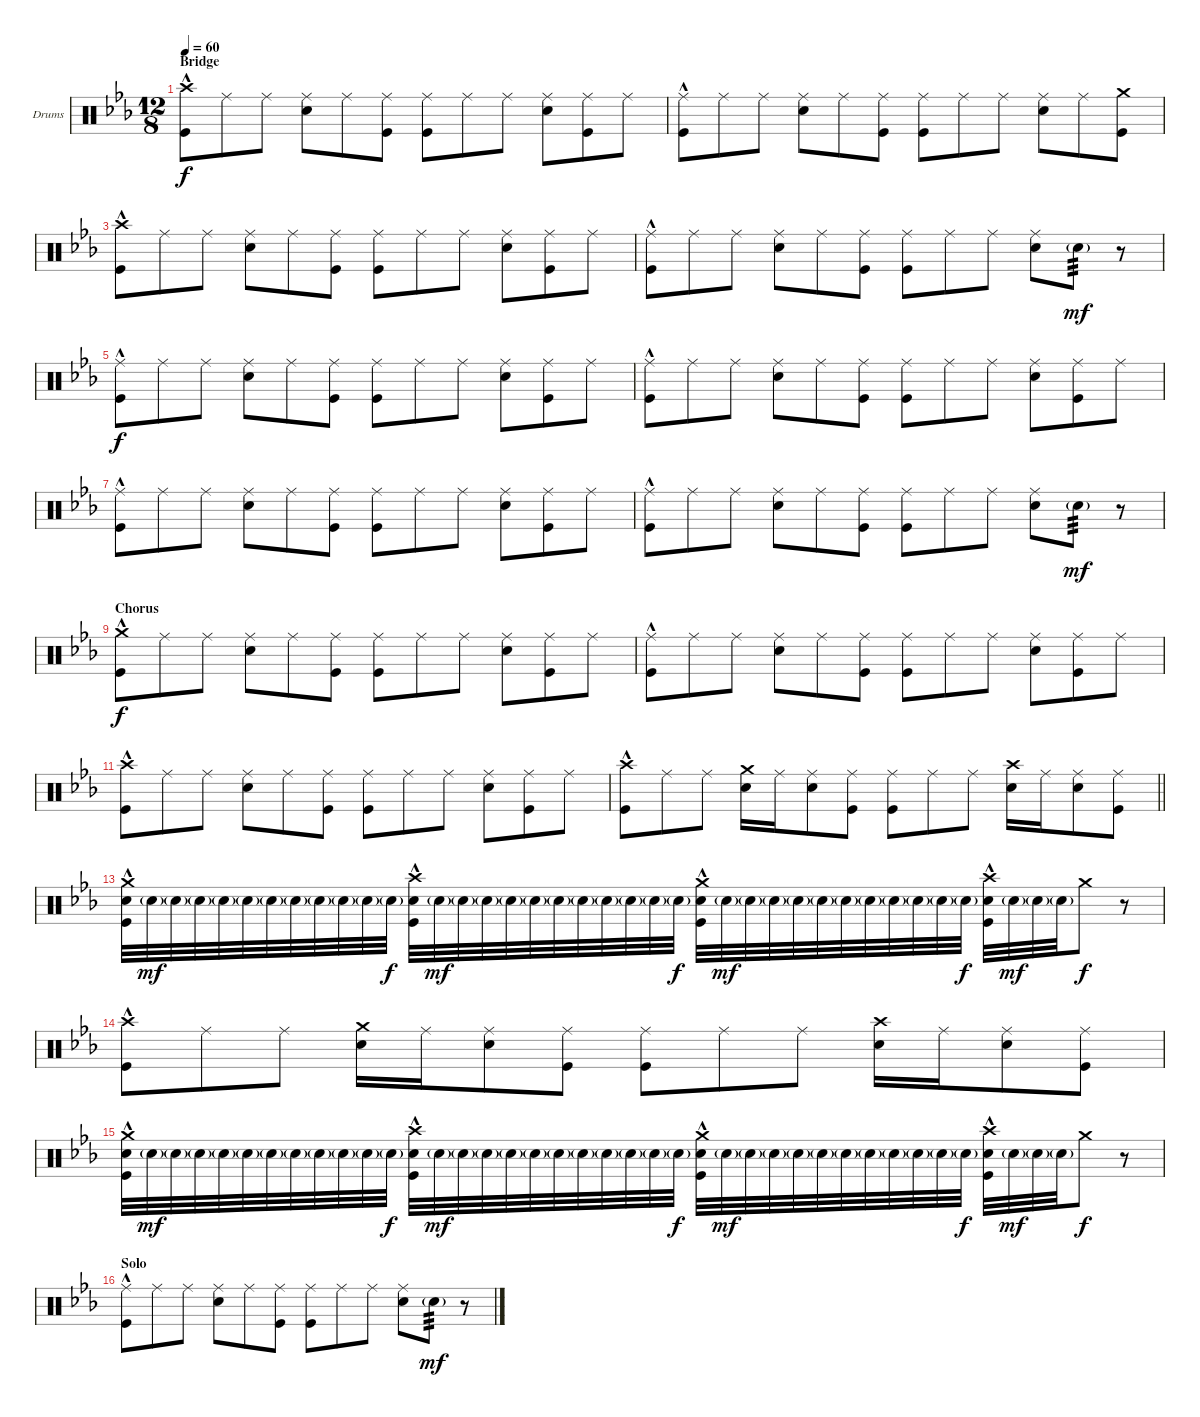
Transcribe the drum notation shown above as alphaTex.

\bracketExtendMode nobrackets
\firstSystemTrackNameOrientation horizontal
\otherSystemsTrackNameOrientation horizontal
\defaultBarNumberDisplay FirstOfSystem
\track ("Drumkit" "Drums") {instrument percussion}
\staff {score}
\articulation defaults
\ts (12 8)
\section ("" "Bridge")
\tempo 60
\clef neutral
\scale
0.333333
\ks cminor
("Crash high (hit)" "Kick (hit)"{hac}).8{dy f} "Ride (middle)".8 "Ride (middle)".8 ("Ride (middle)" "Snare (hit) 2").8 "Ride (middle)".8 ("Ride (middle)" "Kick (hit)").8 ("Ride (middle)" "Kick (hit)").8 "Ride (middle)".8 "Ride (middle)".8 ("Ride (middle)" "Snare (hit) 2").8 ("Ride (middle)" "Kick (hit)").8 "Ride (middle)".8 |
\scale
0.333333 ("Ride (middle)" "Kick (hit)"{hac}).8 "Ride (middle)".8 "Ride (middle)".8 ("Ride (middle)" "Snare (hit) 2").8 "Ride (middle)".8 ("Ride (middle)" "Kick (hit)").8 ("Ride (middle)" "Kick (hit)").8 "Ride (middle)".8 "Ride (middle)".8 ("Ride (middle)" "Snare (hit) 2").8 "Ride (middle)".8 ("Crash medium (hit)" "Kick (hit)").8 |
\scale
0.333333 ("Crash high (hit)" "Kick (hit)"{hac}).8 "Ride (middle)".8 "Ride (middle)".8 ("Ride (middle)" "Snare (hit) 2").8 "Ride (middle)".8 ("Ride (middle)" "Kick (hit)").8 ("Ride (middle)" "Kick (hit)").8 "Ride (middle)".8 "Ride (middle)".8 ("Ride (middle)" "Snare (hit) 2").8 ("Ride (middle)" "Kick (hit)").8 "Ride (middle)".8 |
\scale
0.333333 ("Ride (middle)" "Kick (hit)"{hac}).8 "Ride (middle)".8 "Ride (middle)".8 ("Ride (middle)" "Snare (hit) 2").8 "Ride (middle)".8 ("Ride (middle)" "Kick (hit)").8 ("Ride (middle)" "Kick (hit)").8 "Ride (middle)".8 "Ride (middle)".8 ("Ride (middle)" "Snare (hit) 2").8 "Snare (hit) 2"{g}.8{tp 3 dy mf} r.8 |
\scale
0.333333 ("Ride (middle)" "Kick (hit)"{hac}).8{dy f} "Ride (middle)".8 "Ride (middle)".8 ("Ride (middle)" "Snare (hit) 2").8 "Ride (middle)".8 ("Ride (middle)" "Kick (hit)").8 ("Ride (middle)" "Kick (hit)").8 "Ride (middle)".8 "Ride (middle)".8 ("Ride (middle)" "Snare (hit) 2").8 ("Ride (middle)" "Kick (hit)").8 "Ride (middle)".8 |
\scale
0.333333 ("Ride (middle)" "Kick (hit)"{hac}).8 "Ride (middle)".8 "Ride (middle)".8 ("Ride (middle)" "Snare (hit) 2").8 "Ride (middle)".8 ("Ride (middle)" "Kick (hit)").8 ("Ride (middle)" "Kick (hit)").8 "Ride (middle)".8 "Ride (middle)".8 ("Ride (middle)" "Snare (hit) 2").8 ("Ride (middle)" "Kick (hit)").8 "Ride (middle)".8 |
\scale
0.333333 ("Ride (middle)" "Kick (hit)"{hac}).8 "Ride (middle)".8 "Ride (middle)".8 ("Ride (middle)" "Snare (hit) 2").8 "Ride (middle)".8 ("Ride (middle)" "Kick (hit)").8 ("Ride (middle)" "Kick (hit)").8 "Ride (middle)".8 "Ride (middle)".8 ("Ride (middle)" "Snare (hit) 2").8 ("Ride (middle)" "Kick (hit)").8 "Ride (middle)".8 |
\scale
0.333333 ("Ride (middle)" "Kick (hit)"{hac}).8 "Ride (middle)".8 "Ride (middle)".8 ("Ride (middle)" "Snare (hit) 2").8 "Ride (middle)".8 ("Ride (middle)" "Kick (hit)").8 ("Ride (middle)" "Kick (hit)").8 "Ride (middle)".8 "Ride (middle)".8 ("Ride (middle)" "Snare (hit) 2").8 "Snare (hit) 2"{g}.8{tp 3 dy mf} r.8 |
\section ("" "Chorus")
\scale
0.333333 ("Crash medium (hit)" "Kick (hit)"{hac}).8{dy f} "Ride (middle)".8 "Ride (middle)".8 ("Ride (middle)" "Snare (hit) 2").8 "Ride (middle)".8 ("Ride (middle)" "Kick (hit)").8 ("Ride (middle)" "Kick (hit)").8 "Ride (middle)".8 "Ride (middle)".8 ("Ride (middle)" "Snare (hit) 2").8 ("Ride (middle)" "Kick (hit)").8 "Ride (middle)".8 |
\scale
0.333333 ("Ride (middle)" "Kick (hit)"{hac}).8 "Ride (middle)".8 "Ride (middle)".8 ("Ride (middle)" "Snare (hit) 2").8 "Ride (middle)".8 ("Ride (middle)" "Kick (hit)").8 ("Ride (middle)" "Kick (hit)").8 "Ride (middle)".8 "Ride (middle)".8 ("Ride (middle)" "Snare (hit) 2").8 ("Ride (middle)" "Kick (hit)").8 "Ride (middle)".8 |
\scale
0.333333 ("Crash high (hit)" "Kick (hit)"{hac}).8 "Ride (middle)".8 "Ride (middle)".8 ("Ride (middle)" "Snare (hit) 2").8 "Ride (middle)".8 ("Ride (middle)" "Kick (hit)").8 ("Ride (middle)" "Kick (hit)").8 "Ride (middle)".8 "Ride (middle)".8 ("Ride (middle)" "Snare (hit) 2").8 ("Ride (middle)" "Kick (hit)").8 "Ride (middle)".8 |
\scale
0.333333
\barLineRight lightlight
("Crash high (hit)" "Kick (hit)"{hac}).8 "Ride (middle)".8 "Ride (middle)".8 ("Crash medium (hit)" "Snare (hit) 2").16 "Ride (middle)".16 ("Ride (middle)" "Snare (hit) 2").8 ("Ride (middle)" "Kick (hit)").8 ("Ride (middle)" "Kick (hit)").8 "Ride (middle)".8 "Ride (middle)".8 ("Crash high (hit)" "Snare (hit) 2").16 "Ride (middle)".16 ("Ride (middle)" "Snare (hit) 2").8 ("Ride (middle)" "Kick (hit)").8 |
\scale
0.333333 ("Snare (hit) 2" "Kick (hit)"{hac} "Crash medium (hit)").32 "Snare (hit) 2"{g}.32{dy mf} "Snare (hit) 2"{g}.32 "Snare (hit) 2"{g}.32 "Snare (hit) 2"{g}.32 "Snare (hit) 2"{g}.32 "Snare (hit) 2"{g}.32 "Snare (hit) 2"{g}.32 "Snare (hit) 2"{g}.32 "Snare (hit) 2"{g}.32 "Snare (hit) 2"{g}.32 "Snare (hit) 2"{g}.32{dy f} ("Snare (hit) 2" "Kick (hit)"{hac} "Crash high (hit)").32 "Snare (hit) 2"{g}.32{dy mf} "Snare (hit) 2"{g}.32 "Snare (hit) 2"{g}.32 "Snare (hit) 2"{g}.32 "Snare (hit) 2"{g}.32 "Snare (hit) 2"{g}.32 "Snare (hit) 2"{g}.32 "Snare (hit) 2"{g}.32 "Snare (hit) 2"{g}.32 "Snare (hit) 2"{g}.32 "Snare (hit) 2"{g}.32{dy f} ("Snare (hit) 2" "Kick (hit)"{hac} "Crash medium (hit)").32 "Snare (hit) 2"{g}.32{dy mf} "Snare (hit) 2"{g}.32 "Snare (hit) 2"{g}.32 "Snare (hit) 2"{g}.32 "Snare (hit) 2"{g}.32 "Snare (hit) 2"{g}.32 "Snare (hit) 2"{g}.32 "Snare (hit) 2"{g}.32 "Snare (hit) 2"{g}.32 "Snare (hit) 2"{g}.32 "Snare (hit) 2"{g}.32{dy f} ("Snare (hit) 2" "Kick (hit)"{hac} "Crash high (hit)").32 "Snare (hit) 2"{g}.32{dy mf} "Snare (hit) 2"{g}.32 "Snare (hit) 2"{g}.32 "Crash medium (hit)".8{dy f} r.8 |
\scale
0.333333 ("Crash high (hit)" "Kick (hit)"{hac}).8 "Ride (middle)".8 "Ride (middle)".8 ("Crash medium (hit)" "Snare (hit) 2").16 "Ride (middle)".16 ("Ride (middle)" "Snare (hit) 2").8 ("Ride (middle)" "Kick (hit)").8 ("Ride (middle)" "Kick (hit)").8 "Ride (middle)".8 "Ride (middle)".8 ("Crash high (hit)" "Snare (hit) 2").16 "Ride (middle)".16 ("Ride (middle)" "Snare (hit) 2").8 ("Ride (middle)" "Kick (hit)").8 |
\scale
0.333333 ("Snare (hit) 2" "Kick (hit)"{hac} "Crash medium (hit)").32 "Snare (hit) 2"{g}.32{dy mf} "Snare (hit) 2"{g}.32 "Snare (hit) 2"{g}.32 "Snare (hit) 2"{g}.32 "Snare (hit) 2"{g}.32 "Snare (hit) 2"{g}.32 "Snare (hit) 2"{g}.32 "Snare (hit) 2"{g}.32 "Snare (hit) 2"{g}.32 "Snare (hit) 2"{g}.32 "Snare (hit) 2"{g}.32{dy f} ("Snare (hit) 2" "Kick (hit)"{hac} "Crash high (hit)").32 "Snare (hit) 2"{g}.32{dy mf} "Snare (hit) 2"{g}.32 "Snare (hit) 2"{g}.32 "Snare (hit) 2"{g}.32 "Snare (hit) 2"{g}.32 "Snare (hit) 2"{g}.32 "Snare (hit) 2"{g}.32 "Snare (hit) 2"{g}.32 "Snare (hit) 2"{g}.32 "Snare (hit) 2"{g}.32 "Snare (hit) 2"{g}.32{dy f} ("Snare (hit) 2" "Kick (hit)"{hac} "Crash medium (hit)").32 "Snare (hit) 2"{g}.32{dy mf} "Snare (hit) 2"{g}.32 "Snare (hit) 2"{g}.32 "Snare (hit) 2"{g}.32 "Snare (hit) 2"{g}.32 "Snare (hit) 2"{g}.32 "Snare (hit) 2"{g}.32 "Snare (hit) 2"{g}.32 "Snare (hit) 2"{g}.32 "Snare (hit) 2"{g}.32 "Snare (hit) 2"{g}.32{dy f} ("Snare (hit) 2" "Kick (hit)"{hac} "Crash high (hit)").32 "Snare (hit) 2"{g}.32{dy mf} "Snare (hit) 2"{g}.32 "Snare (hit) 2"{g}.32 "Crash medium (hit)".8{dy f} r.8 |
\section ("" "Solo")
\scale
0.333333 ("Ride (middle)" "Kick (hit)"{hac}).8 "Ride (middle)".8 "Ride (middle)".8 ("Ride (middle)" "Snare (hit) 2").8 "Ride (middle)".8 ("Ride (middle)" "Kick (hit)").8 ("Ride (middle)" "Kick (hit)").8 "Ride (middle)".8 "Ride (middle)".8 ("Ride (middle)" "Snare (hit) 2").8 "Snare (hit) 2"{g}.8{tp 3 dy mf} r.8
